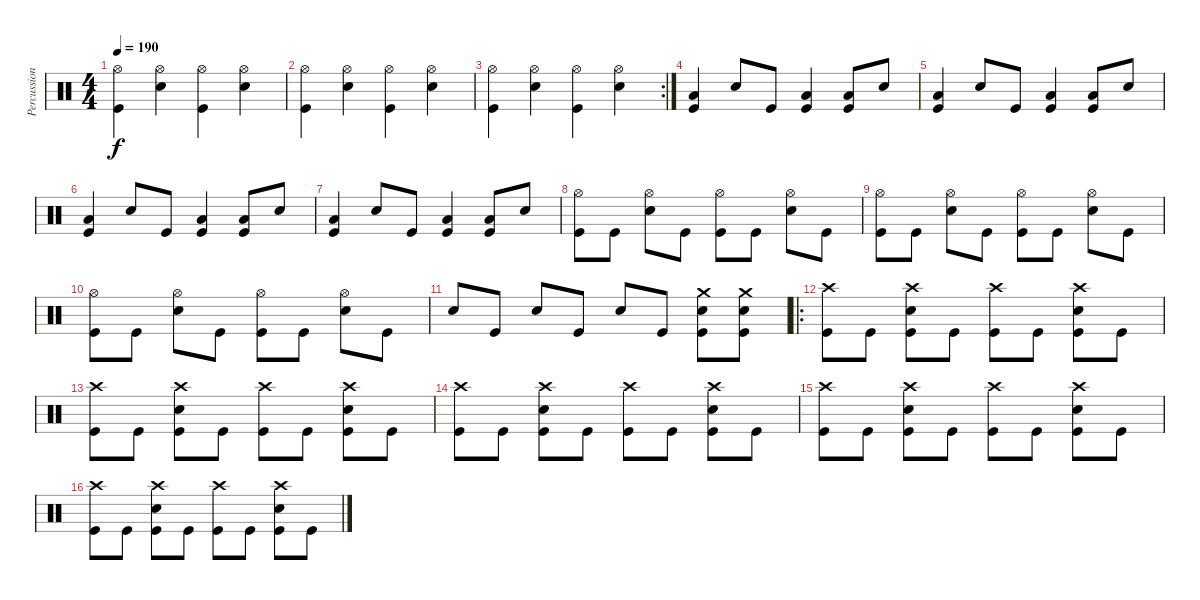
\track ("Percussion" "Percussion") {instrument percussion}
\staff {score}
\articulation defaults
\ts (4 4)
\tempo 190
\clef neutral
\ks c
("Hi-Hat (open)" "Kick (hit)").4{dy f} ("Hi-Hat (open)" "Snare (hit) 2").4 ("Hi-Hat (open)" "Kick (hit)").4 ("Hi-Hat (open)" "Snare (hit) 2").4 |
("Hi-Hat (open)" "Kick (hit)").4 ("Hi-Hat (open)" "Snare (hit) 2").4 ("Hi-Hat (open)" "Kick (hit)").4 ("Hi-Hat (open)" "Snare (hit) 2").4 |
\rc 2
("Hi-Hat (open)" "Kick (hit)").4 ("Hi-Hat (open)" "Snare (hit) 2").4 ("Hi-Hat (open)" "Kick (hit)").4 ("Hi-Hat (open)" "Snare (hit) 2").4 |
("Low Floor Tom (hit)" "Kick (hit)").4 "Snare (hit) 2".8 "Kick (hit)".8 ("Low Floor Tom (hit)" "Kick (hit)").4 ("Low Floor Tom (hit)" "Kick (hit)").8 "Snare (hit) 2".8 |
("Low Floor Tom (hit)" "Kick (hit)").4 "Snare (hit) 2".8 "Kick (hit)".8 ("Low Floor Tom (hit)" "Kick (hit)").4 ("Low Floor Tom (hit)" "Kick (hit)").8 "Snare (hit) 2".8 |
("Low Floor Tom (hit)" "Kick (hit)").4 "Snare (hit) 2".8 "Kick (hit)".8 ("Low Floor Tom (hit)" "Kick (hit)").4 ("Low Floor Tom (hit)" "Kick (hit)").8 "Snare (hit) 2".8 |
("Low Floor Tom (hit)" "Kick (hit)").4 "Snare (hit) 2".8 "Kick (hit)".8 ("Low Floor Tom (hit)" "Kick (hit)").4 ("Low Floor Tom (hit)" "Kick (hit)").8 "Snare (hit) 2".8 |
("Hi-Hat (open)" "Kick (hit)").8 "Kick (hit)".8 ("Hi-Hat (open)" "Snare (hit) 2").8 "Kick (hit)".8 ("Hi-Hat (open)" "Kick (hit)").8 "Kick (hit)".8 ("Hi-Hat (open)" "Snare (hit) 2").8 "Kick (hit)".8 |
("Hi-Hat (open)" "Kick (hit)").8 "Kick (hit)".8 ("Hi-Hat (open)" "Snare (hit) 2").8 "Kick (hit)".8 ("Hi-Hat (open)" "Kick (hit)").8 "Kick (hit)".8 ("Hi-Hat (open)" "Snare (hit) 2").8 "Kick (hit)".8 |
("Hi-Hat (open)" "Kick (hit)").8 "Kick (hit)".8 ("Hi-Hat (open)" "Snare (hit) 2").8 "Kick (hit)".8 ("Hi-Hat (open)" "Kick (hit)").8 "Kick (hit)".8 ("Hi-Hat (open)" "Snare (hit) 2").8 "Kick (hit)".8 |
"Snare (hit) 2".8 "Kick (hit)".8 "Snare (hit) 2".8 "Kick (hit)".8 "Snare (hit) 2".8 "Kick (hit)".8 ("Crash medium (hit)" "Snare (hit) 2" "Kick (hit)").8 ("Crash medium (hit)" "Snare (hit) 2" "Kick (hit)").8 |
\ro
("Crash high (hit)" "Kick (hit)").8 "Kick (hit)".8 ("Crash high (hit)" "Snare (hit) 2" "Kick (hit)").8 "Kick (hit)".8 ("Crash high (hit)" "Kick (hit)").8 "Kick (hit)".8 ("Crash high (hit)" "Snare (hit) 2" "Kick (hit)").8 "Kick (hit)".8 |
("Crash high (hit)" "Kick (hit)").8 "Kick (hit)".8 ("Crash high (hit)" "Snare (hit) 2" "Kick (hit)").8 "Kick (hit)".8 ("Crash high (hit)" "Kick (hit)").8 "Kick (hit)".8 ("Crash high (hit)" "Snare (hit) 2" "Kick (hit)").8 "Kick (hit)".8 |
("Crash high (hit)" "Kick (hit)").8 "Kick (hit)".8 ("Crash high (hit)" "Snare (hit) 2" "Kick (hit)").8 "Kick (hit)".8 ("Crash high (hit)" "Kick (hit)").8 "Kick (hit)".8 ("Crash high (hit)" "Snare (hit) 2" "Kick (hit)").8 "Kick (hit)".8 |
("Crash high (hit)" "Kick (hit)").8 "Kick (hit)".8 ("Crash high (hit)" "Snare (hit) 2" "Kick (hit)").8 "Kick (hit)".8 ("Crash high (hit)" "Kick (hit)").8 "Kick (hit)".8 ("Crash high (hit)" "Snare (hit) 2" "Kick (hit)").8 "Kick (hit)".8 |
("Crash high (hit)" "Kick (hit)").8 "Kick (hit)".8 ("Crash high (hit)" "Snare (hit) 2" "Kick (hit)").8 "Kick (hit)".8 ("Crash high (hit)" "Kick (hit)").8 "Kick (hit)".8 ("Crash high (hit)" "Snare (hit) 2" "Kick (hit)").8 "Kick (hit)".8
